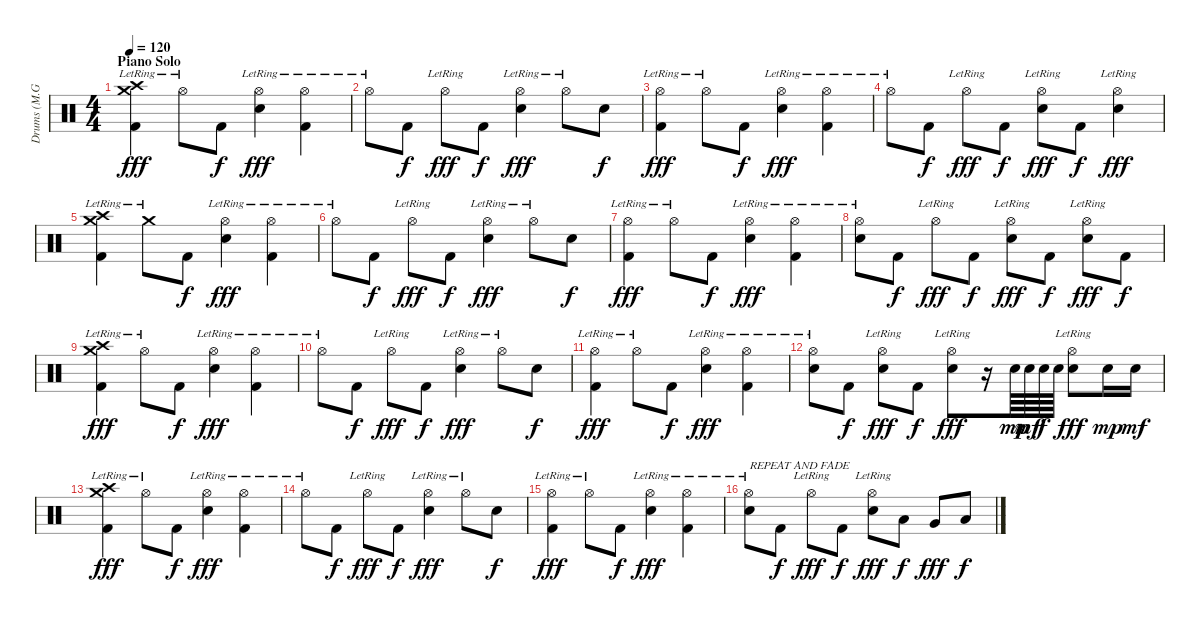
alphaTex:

\track ("Drums (M.Grosskopf)" "Drums (M.G") {instrument percussion}
\staff {score}
\articulation defaults
\ts (4 4)
\section ("" "Piano Solo")
\tempo 120
\clef neutral
\ks c
("Crash high (hit)"{lr} "Crash medium (hit)"{lr} "Kick (hit) 2").4{dy fff} "Hi-Hat (open)"{lr}.8 "Kick (hit) 2".8{dy f} ("Hi-Hat (open)"{lr} "Electric Snare (hit)").4{dy fff} ("Hi-Hat (open)"{lr} "Kick (hit) 2").4 |
"Hi-Hat (open)"{lr}.8 "Kick (hit) 2".8{dy f} "Hi-Hat (open)"{lr}.8{dy fff} "Kick (hit) 2".8{dy f} ("Hi-Hat (open)"{lr} "Electric Snare (hit)").4{dy fff} "Hi-Hat (open)"{lr}.8 "Electric Snare (hit)".8{dy f} |
("Hi-Hat (open)"{lr} "Kick (hit) 2").4{dy fff} "Hi-Hat (open)"{lr}.8 "Kick (hit) 2".8{dy f} ("Hi-Hat (open)"{lr} "Electric Snare (hit)").4{dy fff} ("Hi-Hat (open)"{lr} "Kick (hit) 2").4 |
"Hi-Hat (open)"{lr}.8 "Kick (hit) 2".8{dy f} "Hi-Hat (open)"{lr}.8{dy fff} "Kick (hit) 2".8{dy f} ("Hi-Hat (open)"{lr} "Electric Snare (hit)").8{dy fff} "Kick (hit) 2".8{dy f} ("Hi-Hat (open)"{lr} "Electric Snare (hit)").4{dy fff} |
("Crash high (hit)"{lr} "Crash medium (hit)"{lr} "Kick (hit) 2").4 "Crash medium (hit)"{lr}.8 "Kick (hit) 2".8{dy f} ("Hi-Hat (open)"{lr} "Electric Snare (hit)").4{dy fff} ("Hi-Hat (open)"{lr} "Kick (hit) 2").4 |
"Hi-Hat (open)"{lr}.8 "Kick (hit) 2".8{dy f} "Hi-Hat (open)"{lr}.8{dy fff} "Kick (hit) 2".8{dy f} ("Hi-Hat (open)"{lr} "Electric Snare (hit)").4{dy fff} "Hi-Hat (open)"{lr}.8 "Electric Snare (hit)".8{dy f} |
("Hi-Hat (open)"{lr} "Kick (hit) 2").4{dy fff} "Hi-Hat (open)"{lr}.8 "Kick (hit) 2".8{dy f} ("Hi-Hat (open)"{lr} "Electric Snare (hit)").4{dy fff} ("Hi-Hat (open)"{lr} "Kick (hit) 2").4 |
("Hi-Hat (open)"{lr} "Electric Snare (hit)").8 "Kick (hit) 2".8{dy f} "Hi-Hat (open)"{lr}.8{dy fff} "Kick (hit) 2".8{dy f} ("Hi-Hat (open)"{lr} "Electric Snare (hit)").8{dy fff} "Kick (hit) 2".8{dy f} ("Hi-Hat (open)"{lr} "Electric Snare (hit)").8{dy fff} "Kick (hit) 2".8{dy f} |
("Crash high (hit)"{lr} "Crash medium (hit)"{lr} "Kick (hit) 2").4{dy fff} "Hi-Hat (open)"{lr}.8 "Kick (hit) 2".8{dy f} ("Hi-Hat (open)"{lr} "Electric Snare (hit)").4{dy fff} ("Hi-Hat (open)"{lr} "Kick (hit) 2").4 |
"Hi-Hat (open)"{lr}.8 "Kick (hit) 2".8{dy f} "Hi-Hat (open)"{lr}.8{dy fff} "Kick (hit) 2".8{dy f} ("Hi-Hat (open)"{lr} "Electric Snare (hit)").4{dy fff} "Hi-Hat (open)"{lr}.8 "Electric Snare (hit)".8{dy f} |
("Hi-Hat (open)"{lr} "Kick (hit) 2").4{dy fff} "Hi-Hat (open)"{lr}.8 "Kick (hit) 2".8{dy f} ("Hi-Hat (open)"{lr} "Electric Snare (hit)").4{dy fff} ("Hi-Hat (open)"{lr} "Kick (hit) 2").4 |
("Hi-Hat (open)"{lr} "Electric Snare (hit)").8 "Kick (hit) 2".8{dy f} ("Hi-Hat (open)"{lr} "Electric Snare (hit)").8{dy fff} "Kick (hit) 2".8{dy f} ("Hi-Hat (open)"{lr} "Electric Snare (hit)").8{dy fff} r.16 "Electric Snare (hit)".64{dy mp} "Electric Snare (hit)".64{dy mf} "Electric Snare (hit)".64{dy f} "Electric Snare (hit)".64 ("Hi-Hat (open)"{lr} "Electric Snare (hit)").8{dy fff} "Electric Snare (hit)".16{dy mp} "Electric Snare (hit)".16{dy mf} |
("Crash high (hit)"{lr} "Crash medium (hit)"{lr} "Kick (hit) 2").4{dy fff} "Hi-Hat (open)"{lr}.8 "Kick (hit) 2".8{dy f} ("Hi-Hat (open)"{lr} "Electric Snare (hit)").4{dy fff} ("Hi-Hat (open)"{lr} "Kick (hit) 2").4 |
"Hi-Hat (open)"{lr}.8 "Kick (hit) 2".8{dy f} "Hi-Hat (open)"{lr}.8{dy fff} "Kick (hit) 2".8{dy f} ("Hi-Hat (open)"{lr} "Electric Snare (hit)").4{dy fff} "Hi-Hat (open)"{lr}.8 "Electric Snare (hit)".8{dy f} |
("Hi-Hat (open)"{lr} "Kick (hit) 2").4{dy fff} "Hi-Hat (open)"{lr}.8 "Kick (hit) 2".8{dy f} ("Hi-Hat (open)"{lr} "Electric Snare (hit)").4{dy fff} ("Hi-Hat (open)"{lr} "Kick (hit) 2").4 |
("Hi-Hat (open)"{lr} "Electric Snare (hit)").8{txt "REPEAT AND FADE"} "Kick (hit) 2".8{dy f} "Hi-Hat (open)"{lr}.8{dy fff} "Kick (hit) 2".8{dy f} ("Hi-Hat (open)"{lr} "Electric Snare (hit)").8{dy fff} "Low Tom (hit)".8{dy f} "Very Low Tom (hit)".8{dy fff} "Low Floor Tom (hit)".8{dy f}
